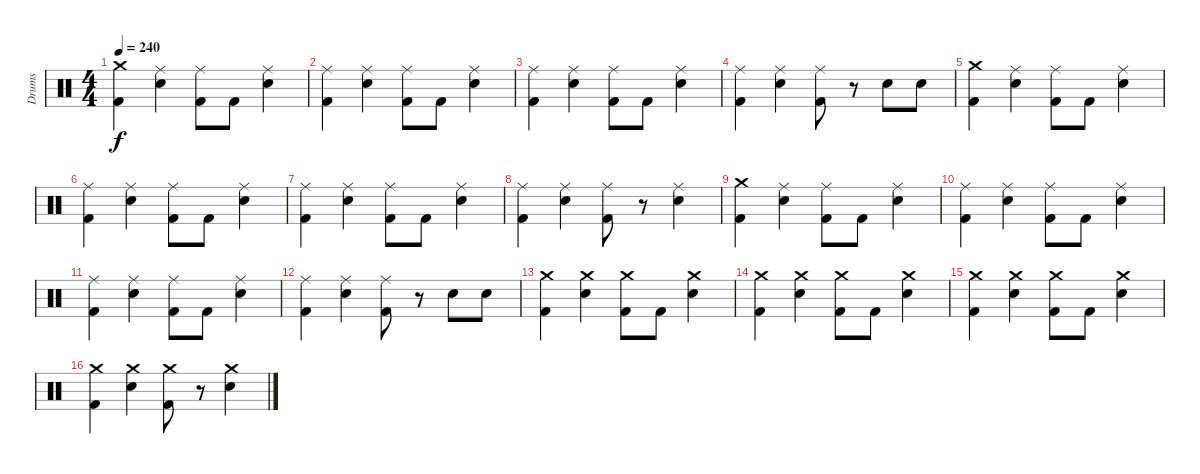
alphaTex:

\track ("Drums" "Drums") {instrument percussion}
\staff {score}
\articulation defaults
\ts (4 4)
\tempo 240
\clef neutral
\ks c
("Crash medium (hit)" "Kick (hit) 2").4{dy f} ("Ride (middle)" "Snare (hit) 2").4 ("Ride (middle)" "Kick (hit) 2").8 "Kick (hit) 2".8 ("Ride (middle)" "Snare (hit) 2").4 |
("Ride (middle)" "Kick (hit) 2").4 ("Ride (middle)" "Snare (hit) 2").4 ("Ride (middle)" "Kick (hit) 2").8 "Kick (hit) 2".8 ("Ride (middle)" "Snare (hit) 2").4 |
("Ride (middle)" "Kick (hit) 2").4 ("Ride (middle)" "Snare (hit) 2").4 ("Ride (middle)" "Kick (hit) 2").8 "Kick (hit) 2".8 ("Ride (middle)" "Snare (hit) 2").4 |
("Ride (middle)" "Kick (hit) 2").4 ("Ride (middle)" "Snare (hit) 2").4 ("Ride (middle)" "Kick (hit) 2").8 r.8 "Snare (hit) 2".8 "Snare (hit) 2".8 |
("Crash medium (hit)" "Kick (hit) 2").4 ("Ride (middle)" "Snare (hit) 2").4 ("Ride (middle)" "Kick (hit) 2").8 "Kick (hit) 2".8 ("Ride (middle)" "Snare (hit) 2").4 |
("Ride (middle)" "Kick (hit) 2").4 ("Ride (middle)" "Snare (hit) 2").4 ("Ride (middle)" "Kick (hit) 2").8 "Kick (hit) 2".8 ("Ride (middle)" "Snare (hit) 2").4 |
("Ride (middle)" "Kick (hit) 2").4 ("Ride (middle)" "Snare (hit) 2").4 ("Ride (middle)" "Kick (hit) 2").8 "Kick (hit) 2".8 ("Ride (middle)" "Snare (hit) 2").4 |
("Ride (middle)" "Kick (hit) 2").4 ("Ride (middle)" "Snare (hit) 2").4 ("Ride (middle)" "Kick (hit) 2").8 r.8 ("Ride (middle)" "Snare (hit) 2").4 |
("Crash medium (hit)" "Kick (hit) 2").4 ("Ride (middle)" "Snare (hit) 2").4 ("Ride (middle)" "Kick (hit) 2").8 "Kick (hit) 2".8 ("Ride (middle)" "Snare (hit) 2").4 |
("Ride (middle)" "Kick (hit) 2").4 ("Ride (middle)" "Snare (hit) 2").4 ("Ride (middle)" "Kick (hit) 2").8 "Kick (hit) 2".8 ("Ride (middle)" "Snare (hit) 2").4 |
("Ride (middle)" "Kick (hit) 2").4 ("Ride (middle)" "Snare (hit) 2").4 ("Ride (middle)" "Kick (hit) 2").8 "Kick (hit) 2".8 ("Ride (middle)" "Snare (hit) 2").4 |
("Ride (middle)" "Kick (hit) 2").4 ("Ride (middle)" "Snare (hit) 2").4 ("Ride (middle)" "Kick (hit) 2").8 r.8 "Snare (hit) 2".8 "Snare (hit) 2".8 |
("Crash medium (hit)" "Kick (hit) 2").4 ("Crash medium (hit)" "Snare (hit) 2").4 ("Crash medium (hit)" "Kick (hit) 2").8 "Kick (hit) 2".8 ("Crash medium (hit)" "Snare (hit) 2").4 |
("Crash medium (hit)" "Kick (hit) 2").4 ("Crash medium (hit)" "Snare (hit) 2").4 ("Crash medium (hit)" "Kick (hit) 2").8 "Kick (hit) 2".8 ("Crash medium (hit)" "Snare (hit) 2").4 |
("Crash medium (hit)" "Kick (hit) 2").4 ("Crash medium (hit)" "Snare (hit) 2").4 ("Crash medium (hit)" "Kick (hit) 2").8 "Kick (hit) 2".8 ("Crash medium (hit)" "Snare (hit) 2").4 |
("Crash medium (hit)" "Kick (hit) 2").4 ("Crash medium (hit)" "Snare (hit) 2").4 ("Crash medium (hit)" "Kick (hit) 2").8 r.8 ("Crash medium (hit)" "Snare (hit) 2").4
